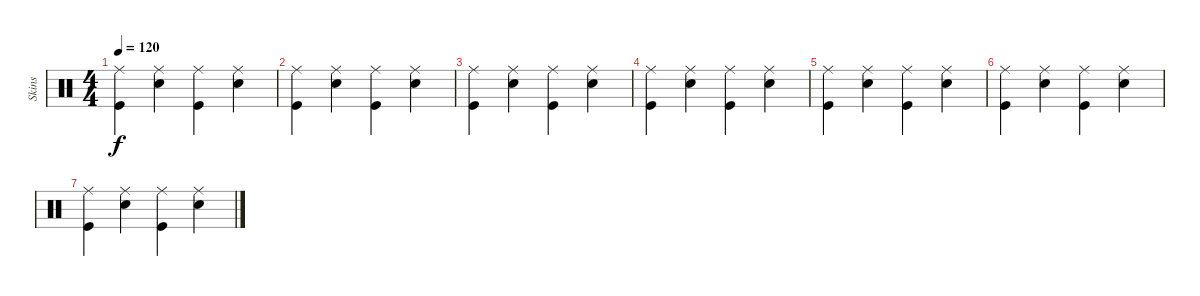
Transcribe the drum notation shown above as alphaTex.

\track ("Skins" "Skins") {instrument percussion}
\staff {score}
\articulation defaults
\ts (4 4)
\tempo 120
\clef neutral
\ks c
("Kick (hit)" "Ride (middle)").4{dy f} ("Snare (hit) 2" "Ride (middle)").4 ("Kick (hit)" "Ride (middle)").4 ("Snare (hit) 2" "Ride (middle)").4 |
("Kick (hit)" "Ride (middle)").4 ("Snare (hit) 2" "Ride (middle)").4 ("Kick (hit)" "Ride (middle)").4 ("Snare (hit) 2" "Ride (middle)").4 |
("Kick (hit)" "Ride (middle)").4 ("Snare (hit) 2" "Ride (middle)").4 ("Kick (hit)" "Ride (middle)").4 ("Snare (hit) 2" "Ride (middle)").4 |
("Kick (hit)" "Ride (middle)").4 ("Snare (hit) 2" "Ride (middle)").4 ("Kick (hit)" "Ride (middle)").4 ("Snare (hit) 2" "Ride (middle)").4 |
("Kick (hit)" "Ride (middle)").4 ("Snare (hit) 2" "Ride (middle)").4 ("Kick (hit)" "Ride (middle)").4 ("Snare (hit) 2" "Ride (middle)").4 |
("Kick (hit)" "Ride (middle)").4 ("Snare (hit) 2" "Ride (middle)").4 ("Kick (hit)" "Ride (middle)").4 ("Snare (hit) 2" "Ride (middle)").4 |
("Kick (hit)" "Ride (middle)").4 ("Snare (hit) 2" "Ride (middle)").4 ("Kick (hit)" "Ride (middle)").4 ("Snare (hit) 2" "Ride (middle)").4
